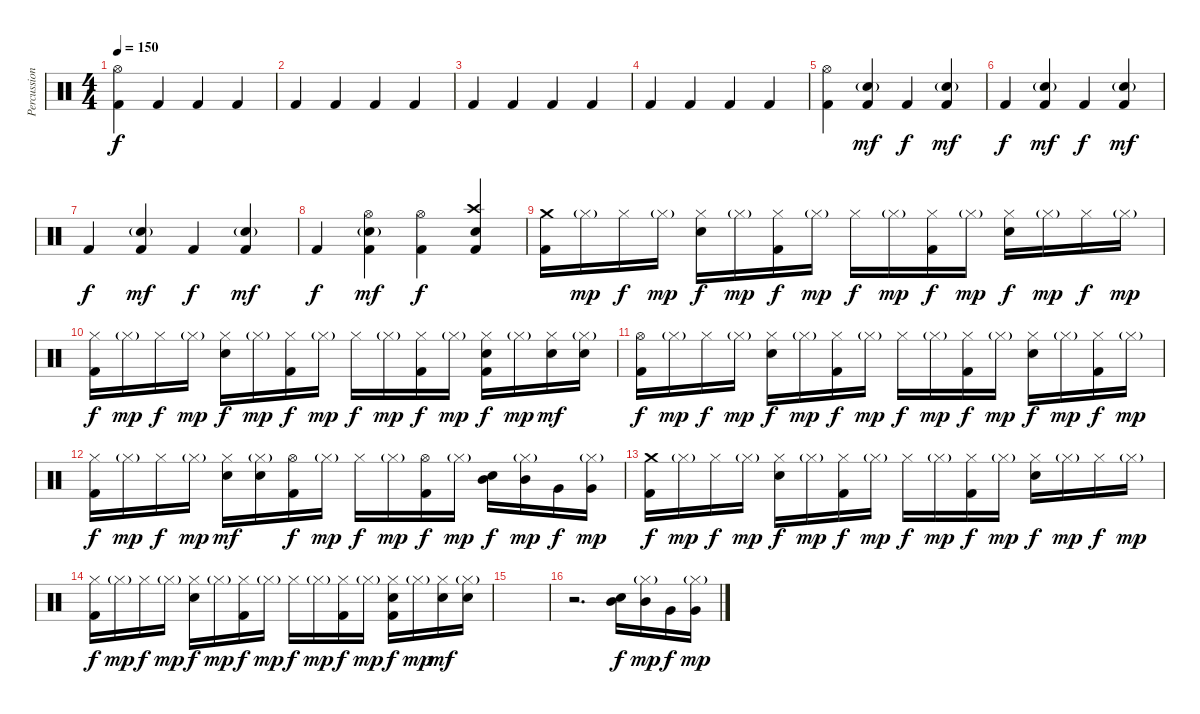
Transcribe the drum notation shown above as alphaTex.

\track ("Percussion" "Percussion") {instrument percussion}
\staff {score}
\articulation defaults
\ts (4 4)
\tempo 150
\clef neutral
\ks c
("Hi-Hat (open)" "Kick (hit) 2").4{dy f} "Kick (hit) 2".4 "Kick (hit) 2".4 "Kick (hit) 2".4 |
"Kick (hit) 2".4 "Kick (hit) 2".4 "Kick (hit) 2".4 "Kick (hit) 2".4 |
"Kick (hit) 2".4 "Kick (hit) 2".4 "Kick (hit) 2".4 "Kick (hit) 2".4 |
"Kick (hit) 2".4 "Kick (hit) 2".4 "Kick (hit) 2".4 "Kick (hit) 2".4 |
("Hi-Hat (open)" "Kick (hit) 2").4 ("Snare (hit) 2"{g} "Kick (hit) 2").4{dy mf} "Kick (hit) 2".4{dy f} ("Snare (hit) 2"{g} "Kick (hit) 2").4{dy mf} |
"Kick (hit) 2".4{dy f} ("Snare (hit) 2"{g} "Kick (hit) 2").4{dy mf} "Kick (hit) 2".4{dy f} ("Snare (hit) 2"{g} "Kick (hit) 2").4{dy mf} |
"Kick (hit) 2".4{dy f} ("Snare (hit) 2"{g} "Kick (hit) 2").4{dy mf} "Kick (hit) 2".4{dy f} ("Snare (hit) 2"{g} "Kick (hit) 2").4{dy mf} |
"Kick (hit) 2".4{dy f} ("Hi-Hat (open)" "Snare (hit) 2"{g} "Kick (hit) 2").4{dy mf} ("Hi-Hat (open)" "Kick (hit) 2").4{dy f} ("Crash high (hit)" "Electric Snare (hit)" "Kick (hit) 2").4 |
("Crash medium (hit)" "Kick (hit) 2").16 "Hi-Hat (closed)"{g}.16{dy mp} "Hi-Hat (closed)".16{dy f} "Hi-Hat (closed)"{g}.16{dy mp} ("Hi-Hat (closed)" "Electric Snare (hit)").16{dy f} "Hi-Hat (closed)"{g}.16{dy mp} ("Hi-Hat (closed)" "Kick (hit) 2").16{dy f} "Hi-Hat (closed)"{g}.16{dy mp} "Hi-Hat (closed)".16{dy f} "Hi-Hat (closed)"{g}.16{dy mp} ("Hi-Hat (closed)" "Kick (hit) 2").16{dy f} "Hi-Hat (closed)"{g}.16{dy mp} ("Hi-Hat (closed)" "Electric Snare (hit)").16{dy f} "Hi-Hat (closed)"{g}.16{dy mp} "Hi-Hat (closed)".16{dy f} "Hi-Hat (closed)"{g}.16{dy mp} |
("Hi-Hat (closed)" "Kick (hit) 2").16{dy f} "Hi-Hat (closed)"{g}.16{dy mp} "Hi-Hat (closed)".16{dy f} "Hi-Hat (closed)"{g}.16{dy mp} ("Hi-Hat (closed)" "Electric Snare (hit)").16{dy f} "Hi-Hat (closed)"{g}.16{dy mp} ("Hi-Hat (closed)" "Kick (hit) 2").16{dy f} "Hi-Hat (closed)"{g}.16{dy mp} "Hi-Hat (closed)".16{dy f} "Hi-Hat (closed)"{g}.16{dy mp} ("Hi-Hat (closed)" "Kick (hit) 2").16{dy f} "Hi-Hat (closed)"{g}.16{dy mp} ("Hi-Hat (closed)" "Electric Snare (hit)" "Kick (hit) 2").16{dy f} "Hi-Hat (closed)"{g}.16{dy mp} ("Hi-Hat (closed)" "Electric Snare (hit)").16{dy mf} ("Hi-Hat (closed)"{g} "Electric Snare (hit)").16 |
("Hi-Hat (open)" "Kick (hit) 2").16{dy f} "Hi-Hat (closed)"{g}.16{dy mp} "Hi-Hat (closed)".16{dy f} "Hi-Hat (closed)"{g}.16{dy mp} ("Hi-Hat (closed)" "Electric Snare (hit)").16{dy f} "Hi-Hat (closed)"{g}.16{dy mp} ("Hi-Hat (closed)" "Kick (hit) 2").16{dy f} "Hi-Hat (closed)"{g}.16{dy mp} "Hi-Hat (closed)".16{dy f} "Hi-Hat (closed)"{g}.16{dy mp} ("Hi-Hat (closed)" "Kick (hit) 2").16{dy f} "Hi-Hat (closed)"{g}.16{dy mp} ("Hi-Hat (closed)" "Electric Snare (hit)").16{dy f} "Hi-Hat (closed)"{g}.16{dy mp} ("Hi-Hat (closed)" "Kick (hit) 2").16{dy f} "Hi-Hat (closed)"{g}.16{dy mp} |
("Hi-Hat (closed)" "Kick (hit) 2").16{dy f} "Hi-Hat (closed)"{g}.16{dy mp} "Hi-Hat (closed)".16{dy f} "Hi-Hat (closed)"{g}.16{dy mp} ("Hi-Hat (closed)" "Electric Snare (hit)").16{dy mf} ("Hi-Hat (closed)"{g} "Electric Snare (hit)").16 ("Hi-Hat (open)" "Kick (hit) 2").16{dy f} "Hi-Hat (closed)"{g}.16{dy mp} "Hi-Hat (closed)".16{dy f} "Hi-Hat (closed)"{g}.16{dy mp} ("Hi-Hat (open)" "Kick (hit) 2").16{dy f} "Hi-Hat (closed)"{g}.16{dy mp} ("Mid Tom (hit)" "Electric Snare (hit)").16{dy f} ("Hi-Hat (closed)"{g} "Mid Tom (hit)").16{dy mp} "Very Low Tom (hit)".16{dy f} ("Hi-Hat (closed)"{g} "Very Low Tom (hit)").16{dy mp} |
("Crash medium (hit)" "Kick (hit) 2").16{dy f} "Hi-Hat (closed)"{g}.16{dy mp} "Hi-Hat (closed)".16{dy f} "Hi-Hat (closed)"{g}.16{dy mp} ("Hi-Hat (closed)" "Electric Snare (hit)").16{dy f} "Hi-Hat (closed)"{g}.16{dy mp} ("Hi-Hat (closed)" "Kick (hit) 2").16{dy f} "Hi-Hat (closed)"{g}.16{dy mp} "Hi-Hat (closed)".16{dy f} "Hi-Hat (closed)"{g}.16{dy mp} ("Hi-Hat (closed)" "Kick (hit) 2").16{dy f} "Hi-Hat (closed)"{g}.16{dy mp} ("Hi-Hat (closed)" "Electric Snare (hit)").16{dy f} "Hi-Hat (closed)"{g}.16{dy mp} "Hi-Hat (closed)".16{dy f} "Hi-Hat (closed)"{g}.16{dy mp} |
("Hi-Hat (closed)" "Kick (hit) 2").16{dy f} "Hi-Hat (closed)"{g}.16{dy mp} "Hi-Hat (closed)".16{dy f} "Hi-Hat (closed)"{g}.16{dy mp} ("Hi-Hat (closed)" "Electric Snare (hit)").16{dy f} "Hi-Hat (closed)"{g}.16{dy mp} ("Hi-Hat (closed)" "Kick (hit) 2").16{dy f} "Hi-Hat (closed)"{g}.16{dy mp} "Hi-Hat (closed)".16{dy f} "Hi-Hat (closed)"{g}.16{dy mp} ("Hi-Hat (closed)" "Kick (hit) 2").16{dy f} "Hi-Hat (closed)"{g}.16{dy mp} ("Hi-Hat (closed)" "Electric Snare (hit)" "Kick (hit) 2").16{dy f} "Hi-Hat (closed)"{g}.16{dy mp} ("Hi-Hat (closed)" "Electric Snare (hit)").16{dy mf} ("Hi-Hat (closed)"{g} "Electric Snare (hit)").16 |
|
r.2{d} ("Mid Tom (hit)" "Electric Snare (hit)").16{dy f} ("Hi-Hat (closed)"{g} "Mid Tom (hit)").16{dy mp} "Very Low Tom (hit)".16{dy f} ("Hi-Hat (closed)"{g} "Very Low Tom (hit)").16{dy mp}
